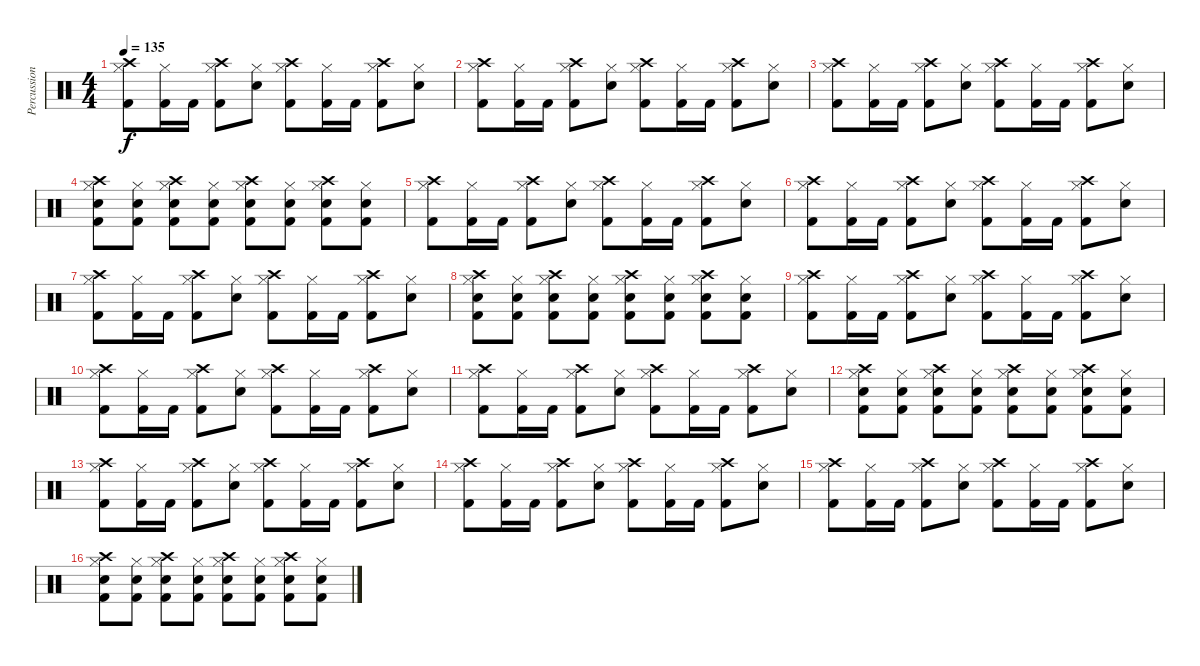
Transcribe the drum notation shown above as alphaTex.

\track ("Percussions" "Percussion") {instrument percussion}
\staff {score}
\articulation defaults
\ts (4 4)
\tempo 135
\clef neutral
\ks c
("Crash high (hit)" "Hi-Hat (closed)" "Kick (hit) 2").8{dy f} ("Hi-Hat (closed)" "Kick (hit) 2").16 "Kick (hit) 2".16 ("Crash high (hit)" "Hi-Hat (closed)" "Kick (hit) 2").8 ("Hi-Hat (closed)" "Snare (hit) 2").8 ("Crash high (hit)" "Hi-Hat (closed)" "Kick (hit) 2").8 ("Hi-Hat (closed)" "Kick (hit) 2").16 "Kick (hit) 2".16 ("Crash high (hit)" "Hi-Hat (closed)" "Kick (hit) 2").8 ("Hi-Hat (closed)" "Snare (hit) 2").8 |
("Crash high (hit)" "Hi-Hat (closed)" "Kick (hit) 2").8 ("Hi-Hat (closed)" "Kick (hit) 2").16 "Kick (hit) 2".16 ("Crash high (hit)" "Hi-Hat (closed)" "Kick (hit) 2").8 ("Hi-Hat (closed)" "Snare (hit) 2").8 ("Crash high (hit)" "Hi-Hat (closed)" "Kick (hit) 2").8 ("Hi-Hat (closed)" "Kick (hit) 2").16 "Kick (hit) 2".16 ("Crash high (hit)" "Hi-Hat (closed)" "Kick (hit) 2").8 ("Hi-Hat (closed)" "Snare (hit) 2").8 |
("Crash high (hit)" "Hi-Hat (closed)" "Kick (hit) 2").8 ("Hi-Hat (closed)" "Kick (hit) 2").16 "Kick (hit) 2".16 ("Crash high (hit)" "Hi-Hat (closed)" "Kick (hit) 2").8 ("Hi-Hat (closed)" "Snare (hit) 2").8 ("Crash high (hit)" "Hi-Hat (closed)" "Kick (hit) 2").8 ("Hi-Hat (closed)" "Kick (hit) 2").16 "Kick (hit) 2".16 ("Crash high (hit)" "Hi-Hat (closed)" "Kick (hit) 2").8 ("Hi-Hat (closed)" "Snare (hit) 2").8 |
("Crash high (hit)" "Hi-Hat (closed)" "Kick (hit) 2" "Snare (hit) 2").8 ("Hi-Hat (closed)" "Kick (hit) 2" "Snare (hit) 2").8 ("Crash high (hit)" "Hi-Hat (closed)" "Kick (hit) 2" "Snare (hit) 2").8 ("Hi-Hat (closed)" "Kick (hit) 2" "Snare (hit) 2").8 ("Crash high (hit)" "Hi-Hat (closed)" "Kick (hit) 2" "Snare (hit) 2").8 ("Hi-Hat (closed)" "Kick (hit) 2" "Snare (hit) 2").8 ("Crash high (hit)" "Hi-Hat (closed)" "Kick (hit) 2" "Snare (hit) 2").8 ("Hi-Hat (closed)" "Kick (hit) 2" "Snare (hit) 2").8 |
("Crash high (hit)" "Hi-Hat (closed)" "Kick (hit) 2").8 ("Hi-Hat (closed)" "Kick (hit) 2").16 "Kick (hit) 2".16 ("Crash high (hit)" "Hi-Hat (closed)" "Kick (hit) 2").8 ("Hi-Hat (closed)" "Snare (hit) 2").8 ("Crash high (hit)" "Hi-Hat (closed)" "Kick (hit) 2").8 ("Hi-Hat (closed)" "Kick (hit) 2").16 "Kick (hit) 2".16 ("Crash high (hit)" "Hi-Hat (closed)" "Kick (hit) 2").8 ("Hi-Hat (closed)" "Snare (hit) 2").8 |
("Crash high (hit)" "Hi-Hat (closed)" "Kick (hit) 2").8 ("Hi-Hat (closed)" "Kick (hit) 2").16 "Kick (hit) 2".16 ("Crash high (hit)" "Hi-Hat (closed)" "Kick (hit) 2").8 ("Hi-Hat (closed)" "Snare (hit) 2").8 ("Crash high (hit)" "Hi-Hat (closed)" "Kick (hit) 2").8 ("Hi-Hat (closed)" "Kick (hit) 2").16 "Kick (hit) 2".16 ("Crash high (hit)" "Hi-Hat (closed)" "Kick (hit) 2").8 ("Hi-Hat (closed)" "Snare (hit) 2").8 |
("Crash high (hit)" "Hi-Hat (closed)" "Kick (hit) 2").8 ("Hi-Hat (closed)" "Kick (hit) 2").16 "Kick (hit) 2".16 ("Crash high (hit)" "Hi-Hat (closed)" "Kick (hit) 2").8 ("Hi-Hat (closed)" "Snare (hit) 2").8 ("Crash high (hit)" "Hi-Hat (closed)" "Kick (hit) 2").8 ("Hi-Hat (closed)" "Kick (hit) 2").16 "Kick (hit) 2".16 ("Crash high (hit)" "Hi-Hat (closed)" "Kick (hit) 2").8 ("Hi-Hat (closed)" "Snare (hit) 2").8 |
("Crash high (hit)" "Hi-Hat (closed)" "Kick (hit) 2" "Snare (hit) 2").8 ("Hi-Hat (closed)" "Kick (hit) 2" "Snare (hit) 2").8 ("Crash high (hit)" "Hi-Hat (closed)" "Kick (hit) 2" "Snare (hit) 2").8 ("Hi-Hat (closed)" "Kick (hit) 2" "Snare (hit) 2").8 ("Crash high (hit)" "Hi-Hat (closed)" "Kick (hit) 2" "Snare (hit) 2").8 ("Hi-Hat (closed)" "Kick (hit) 2" "Snare (hit) 2").8 ("Crash high (hit)" "Hi-Hat (closed)" "Kick (hit) 2" "Snare (hit) 2").8 ("Hi-Hat (closed)" "Kick (hit) 2" "Snare (hit) 2").8 |
("Crash high (hit)" "Hi-Hat (closed)" "Kick (hit) 2").8 ("Hi-Hat (closed)" "Kick (hit) 2").16 "Kick (hit) 2".16 ("Crash high (hit)" "Hi-Hat (closed)" "Kick (hit) 2").8 ("Hi-Hat (closed)" "Snare (hit) 2").8 ("Crash high (hit)" "Hi-Hat (closed)" "Kick (hit) 2").8 ("Hi-Hat (closed)" "Kick (hit) 2").16 "Kick (hit) 2".16 ("Crash high (hit)" "Hi-Hat (closed)" "Kick (hit) 2").8 ("Hi-Hat (closed)" "Snare (hit) 2").8 |
("Crash high (hit)" "Hi-Hat (closed)" "Kick (hit) 2").8 ("Hi-Hat (closed)" "Kick (hit) 2").16 "Kick (hit) 2".16 ("Crash high (hit)" "Hi-Hat (closed)" "Kick (hit) 2").8 ("Hi-Hat (closed)" "Snare (hit) 2").8 ("Crash high (hit)" "Hi-Hat (closed)" "Kick (hit) 2").8 ("Hi-Hat (closed)" "Kick (hit) 2").16 "Kick (hit) 2".16 ("Crash high (hit)" "Hi-Hat (closed)" "Kick (hit) 2").8 ("Hi-Hat (closed)" "Snare (hit) 2").8 |
("Crash high (hit)" "Hi-Hat (closed)" "Kick (hit) 2").8 ("Hi-Hat (closed)" "Kick (hit) 2").16 "Kick (hit) 2".16 ("Crash high (hit)" "Hi-Hat (closed)" "Kick (hit) 2").8 ("Hi-Hat (closed)" "Snare (hit) 2").8 ("Crash high (hit)" "Hi-Hat (closed)" "Kick (hit) 2").8 ("Hi-Hat (closed)" "Kick (hit) 2").16 "Kick (hit) 2".16 ("Crash high (hit)" "Hi-Hat (closed)" "Kick (hit) 2").8 ("Hi-Hat (closed)" "Snare (hit) 2").8 |
("Crash high (hit)" "Hi-Hat (closed)" "Kick (hit) 2" "Snare (hit) 2").8 ("Hi-Hat (closed)" "Kick (hit) 2" "Snare (hit) 2").8 ("Crash high (hit)" "Hi-Hat (closed)" "Kick (hit) 2" "Snare (hit) 2").8 ("Hi-Hat (closed)" "Kick (hit) 2" "Snare (hit) 2").8 ("Crash high (hit)" "Hi-Hat (closed)" "Kick (hit) 2" "Snare (hit) 2").8 ("Hi-Hat (closed)" "Kick (hit) 2" "Snare (hit) 2").8 ("Crash high (hit)" "Hi-Hat (closed)" "Kick (hit) 2" "Snare (hit) 2").8 ("Hi-Hat (closed)" "Kick (hit) 2" "Snare (hit) 2").8 |
("Crash high (hit)" "Hi-Hat (closed)" "Kick (hit) 2").8 ("Hi-Hat (closed)" "Kick (hit) 2").16 "Kick (hit) 2".16 ("Crash high (hit)" "Hi-Hat (closed)" "Kick (hit) 2").8 ("Hi-Hat (closed)" "Snare (hit) 2").8 ("Crash high (hit)" "Hi-Hat (closed)" "Kick (hit) 2").8 ("Hi-Hat (closed)" "Kick (hit) 2").16 "Kick (hit) 2".16 ("Crash high (hit)" "Hi-Hat (closed)" "Kick (hit) 2").8 ("Hi-Hat (closed)" "Snare (hit) 2").8 |
("Crash high (hit)" "Hi-Hat (closed)" "Kick (hit) 2").8 ("Hi-Hat (closed)" "Kick (hit) 2").16 "Kick (hit) 2".16 ("Crash high (hit)" "Hi-Hat (closed)" "Kick (hit) 2").8 ("Hi-Hat (closed)" "Snare (hit) 2").8 ("Crash high (hit)" "Hi-Hat (closed)" "Kick (hit) 2").8 ("Hi-Hat (closed)" "Kick (hit) 2").16 "Kick (hit) 2".16 ("Crash high (hit)" "Hi-Hat (closed)" "Kick (hit) 2").8 ("Hi-Hat (closed)" "Snare (hit) 2").8 |
("Crash high (hit)" "Hi-Hat (closed)" "Kick (hit) 2").8 ("Hi-Hat (closed)" "Kick (hit) 2").16 "Kick (hit) 2".16 ("Crash high (hit)" "Hi-Hat (closed)" "Kick (hit) 2").8 ("Hi-Hat (closed)" "Snare (hit) 2").8 ("Crash high (hit)" "Hi-Hat (closed)" "Kick (hit) 2").8 ("Hi-Hat (closed)" "Kick (hit) 2").16 "Kick (hit) 2".16 ("Crash high (hit)" "Hi-Hat (closed)" "Kick (hit) 2").8 ("Hi-Hat (closed)" "Snare (hit) 2").8 |
("Crash high (hit)" "Hi-Hat (closed)" "Kick (hit) 2" "Snare (hit) 2").8 ("Hi-Hat (closed)" "Kick (hit) 2" "Snare (hit) 2").8 ("Crash high (hit)" "Hi-Hat (closed)" "Kick (hit) 2" "Snare (hit) 2").8 ("Hi-Hat (closed)" "Kick (hit) 2" "Snare (hit) 2").8 ("Crash high (hit)" "Hi-Hat (closed)" "Kick (hit) 2" "Snare (hit) 2").8 ("Hi-Hat (closed)" "Kick (hit) 2" "Snare (hit) 2").8 ("Crash high (hit)" "Hi-Hat (closed)" "Kick (hit) 2" "Snare (hit) 2").8 ("Hi-Hat (closed)" "Kick (hit) 2" "Snare (hit) 2").8
